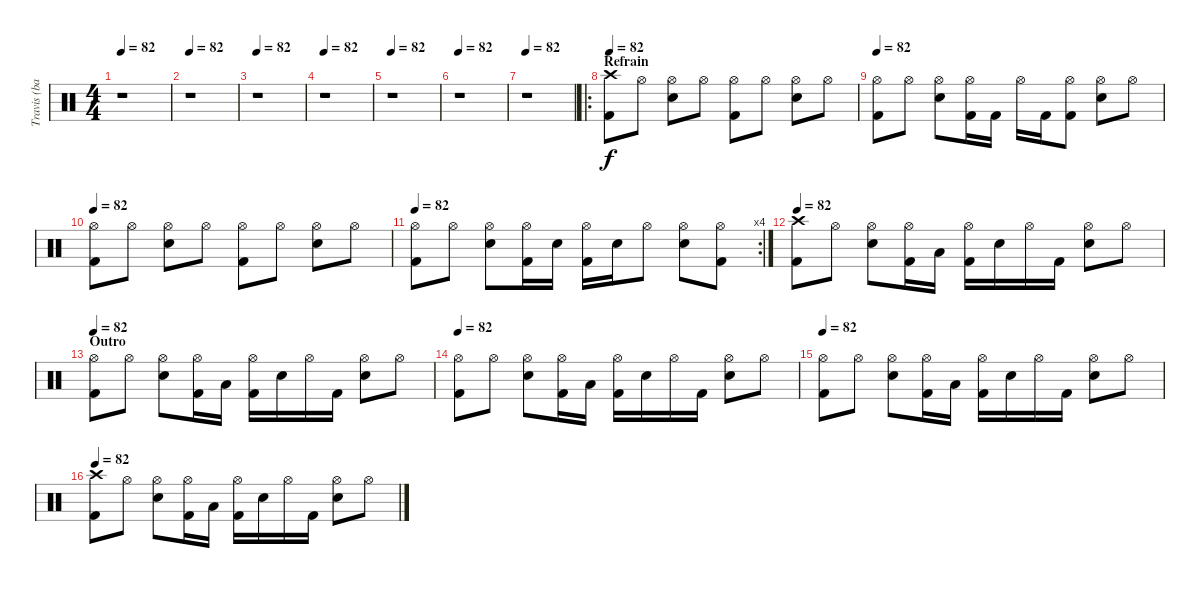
\track ("Travis (batterie)" "Travis (ba") {instrument percussion}
\staff {score}
\articulation defaults
\ts (4 4)
\tempo 82
\clef neutral
\ks c
r.1{dy f} |
\tempo 82
r.1 |
\tempo 82
r.1 |
\tempo 82
r.1 |
\tempo 82
r.1 |
\tempo 82
r.1 |
\tempo 82
r.1 |
\ro
\section ("" "Refrain")
\tempo 82
("Crash high (hit)" "Kick (hit) 2").8 "Hi-Hat (open)".8 ("Hi-Hat (open)" "Electric Snare (hit)").8 "Hi-Hat (open)".8 ("Hi-Hat (open)" "Kick (hit) 2").8 "Hi-Hat (open)".8 ("Hi-Hat (open)" "Electric Snare (hit)").8 "Hi-Hat (open)".8 |
\tempo 82
("Hi-Hat (open)" "Kick (hit) 2").8 "Hi-Hat (open)".8 ("Hi-Hat (open)" "Electric Snare (hit)").8 ("Hi-Hat (open)" "Kick (hit) 2").16 "Kick (hit) 2".16 "Hi-Hat (open)".16 "Kick (hit) 2".16 ("Hi-Hat (open)" "Kick (hit) 2").8 ("Hi-Hat (open)" "Electric Snare (hit)").8 "Hi-Hat (open)".8 |
\tempo 82
("Hi-Hat (open)" "Kick (hit) 2").8 "Hi-Hat (open)".8 ("Hi-Hat (open)" "Electric Snare (hit)").8 "Hi-Hat (open)".8 ("Hi-Hat (open)" "Kick (hit) 2").8 "Hi-Hat (open)".8 ("Hi-Hat (open)" "Electric Snare (hit)").8 "Hi-Hat (open)".8 |
\rc 4
\tempo 82
("Hi-Hat (open)" "Kick (hit) 2").8 "Hi-Hat (open)".8 ("Hi-Hat (open)" "Electric Snare (hit)").8 ("Hi-Hat (open)" "Kick (hit) 2").16 "Electric Snare (hit)".16 ("Hi-Hat (open)" "Kick (hit) 2").16 "Electric Snare (hit)".16 "Hi-Hat (open)".8 ("Hi-Hat (open)" "Electric Snare (hit)").8 ("Hi-Hat (open)" "Kick (hit) 2").8 |
\tempo 82
("Crash high (hit)" "Kick (hit) 2").8 "Hi-Hat (open)".8 ("Hi-Hat (open)" "Electric Snare (hit)").8 ("Hi-Hat (open)" "Kick (hit) 2").16 "Low Tom (hit)".16 ("Hi-Hat (open)" "Kick (hit) 2").16 "Electric Snare (hit)".16 "Hi-Hat (open)".16 "Kick (hit) 2".16 ("Hi-Hat (open)" "Electric Snare (hit)").8 "Hi-Hat (open)".8 |
\section ("" "Outro")
\tempo 82
("Hi-Hat (open)" "Kick (hit) 2").8 "Hi-Hat (open)".8 ("Hi-Hat (open)" "Electric Snare (hit)").8 ("Hi-Hat (open)" "Kick (hit) 2").16 "Low Tom (hit)".16 ("Hi-Hat (open)" "Kick (hit) 2").16 "Electric Snare (hit)".16 "Hi-Hat (open)".16 "Kick (hit) 2".16 ("Hi-Hat (open)" "Electric Snare (hit)").8 "Hi-Hat (open)".8 |
\tempo 82
("Hi-Hat (open)" "Kick (hit) 2").8 "Hi-Hat (open)".8 ("Hi-Hat (open)" "Electric Snare (hit)").8 ("Hi-Hat (open)" "Kick (hit) 2").16 "Low Tom (hit)".16 ("Hi-Hat (open)" "Kick (hit) 2").16 "Electric Snare (hit)".16 "Hi-Hat (open)".16 "Kick (hit) 2".16 ("Hi-Hat (open)" "Electric Snare (hit)").8 "Hi-Hat (open)".8 |
\tempo 82
("Hi-Hat (open)" "Kick (hit) 2").8 "Hi-Hat (open)".8 ("Hi-Hat (open)" "Electric Snare (hit)").8 ("Hi-Hat (open)" "Kick (hit) 2").16 "Low Tom (hit)".16 ("Hi-Hat (open)" "Kick (hit) 2").16 "Electric Snare (hit)".16 "Hi-Hat (open)".16 "Kick (hit) 2".16 ("Hi-Hat (open)" "Electric Snare (hit)").8 "Hi-Hat (open)".8 |
\tempo 82
("Crash high (hit)" "Kick (hit) 2").8 "Hi-Hat (open)".8 ("Hi-Hat (open)" "Electric Snare (hit)").8 ("Hi-Hat (open)" "Kick (hit) 2").16 "Low Tom (hit)".16 ("Hi-Hat (open)" "Kick (hit) 2").16 "Electric Snare (hit)".16 "Hi-Hat (open)".16 "Kick (hit) 2".16 ("Hi-Hat (open)" "Electric Snare (hit)").8 "Hi-Hat (open)".8
